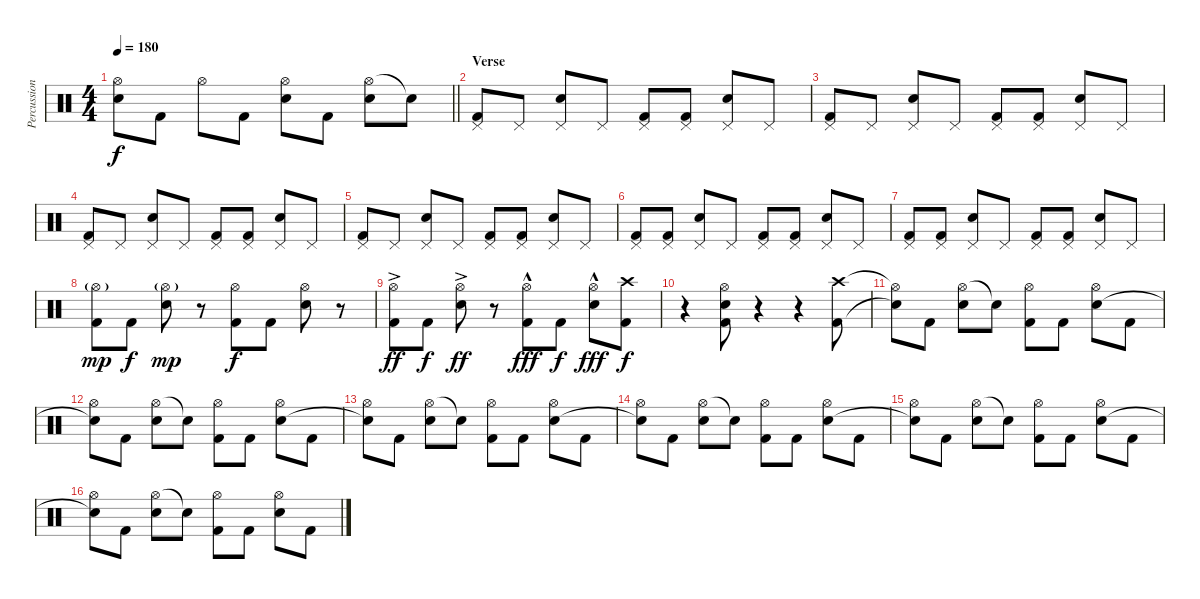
\track ("Percussion" "Percussion") {instrument percussion}
\staff {score}
\articulation defaults
\ts (4 4)
\tempo 180
\clef neutral
\barLineRight lightlight
\ks c
("Hi-Hat (open)" "Electric Snare (hit)").8{dy f} "Kick (hit) 2".8 "Hi-Hat (open)".8 "Kick (hit) 2".8 ("Hi-Hat (open)" "Electric Snare (hit)").8 "Kick (hit) 2".8 ("Hi-Hat (open)" "Electric Snare (hit)").8 "Snare (hit)"{t}.8 |
\section ("" "Verse")
("Pedal Hi-Hat (hit)" "Kick (hit) 2").8 "Pedal Hi-Hat (hit)".8 ("Pedal Hi-Hat (hit)" "Electric Snare (hit)").8 "Pedal Hi-Hat (hit)".8 ("Pedal Hi-Hat (hit)" "Kick (hit) 2").8 ("Pedal Hi-Hat (hit)" "Kick (hit) 2").8 ("Pedal Hi-Hat (hit)" "Electric Snare (hit)").8 "Pedal Hi-Hat (hit)".8 |
("Pedal Hi-Hat (hit)" "Kick (hit) 2").8 "Pedal Hi-Hat (hit)".8 ("Pedal Hi-Hat (hit)" "Electric Snare (hit)").8 "Pedal Hi-Hat (hit)".8 ("Pedal Hi-Hat (hit)" "Kick (hit) 2").8 ("Pedal Hi-Hat (hit)" "Kick (hit) 2").8 ("Pedal Hi-Hat (hit)" "Electric Snare (hit)").8 "Pedal Hi-Hat (hit)".8 |
("Pedal Hi-Hat (hit)" "Kick (hit) 2").8 "Pedal Hi-Hat (hit)".8 ("Pedal Hi-Hat (hit)" "Electric Snare (hit)").8 "Pedal Hi-Hat (hit)".8 ("Pedal Hi-Hat (hit)" "Kick (hit) 2").8 ("Pedal Hi-Hat (hit)" "Kick (hit) 2").8 ("Pedal Hi-Hat (hit)" "Electric Snare (hit)").8 "Pedal Hi-Hat (hit)".8 |
("Pedal Hi-Hat (hit)" "Kick (hit) 2").8 "Pedal Hi-Hat (hit)".8 ("Pedal Hi-Hat (hit)" "Electric Snare (hit)").8 "Pedal Hi-Hat (hit)".8 ("Pedal Hi-Hat (hit)" "Kick (hit) 2").8 ("Pedal Hi-Hat (hit)" "Kick (hit) 2").8 ("Pedal Hi-Hat (hit)" "Electric Snare (hit)").8 "Pedal Hi-Hat (hit)".8 |
("Pedal Hi-Hat (hit)" "Kick (hit) 2").8 ("Pedal Hi-Hat (hit)" "Kick (hit) 2").8 ("Pedal Hi-Hat (hit)" "Electric Snare (hit)").8 "Pedal Hi-Hat (hit)".8 ("Pedal Hi-Hat (hit)" "Kick (hit) 2").8 ("Pedal Hi-Hat (hit)" "Kick (hit) 2").8 ("Pedal Hi-Hat (hit)" "Electric Snare (hit)").8 "Pedal Hi-Hat (hit)".8 |
("Pedal Hi-Hat (hit)" "Kick (hit) 2").8 ("Pedal Hi-Hat (hit)" "Kick (hit) 2").8 ("Pedal Hi-Hat (hit)" "Electric Snare (hit)").8 "Pedal Hi-Hat (hit)".8 ("Pedal Hi-Hat (hit)" "Kick (hit) 2").8 ("Pedal Hi-Hat (hit)" "Kick (hit) 2").8 ("Pedal Hi-Hat (hit)" "Electric Snare (hit)").8 "Pedal Hi-Hat (hit)".8 |
("Hi-Hat (open)"{g} "Kick (hit) 2").8{dy mp} "Kick (hit) 2".8{dy f} ("Hi-Hat (open)"{g} "Electric Snare (hit)").8{dy mp} r.8 ("Hi-Hat (open)" "Kick (hit) 2").8{dy f} "Kick (hit) 2".8 ("Hi-Hat (open)" "Electric Snare (hit)").8 r.8 |
("Hi-Hat (open)"{ac} "Kick (hit) 2").8{dy ff} "Kick (hit) 2".8{dy f} ("Hi-Hat (open)"{ac} "Electric Snare (hit)").8{dy ff} r.8 ("Hi-Hat (open)"{hac} "Kick (hit) 2").8{dy fff} "Kick (hit) 2".8{dy f} ("Hi-Hat (open)"{hac} "Electric Snare (hit)").8{dy fff} ("Crash high (hit)" "Kick (hit) 2").8{dy f} |
r.4 ("Hi-Hat (open)" "Electric Snare (hit)" "Kick (hit) 2").8 r.4 r.4 ("Crash high (hit)" "Kick (hit) 2").8 |
("Hi-Hat (open)"{t} "Snare (hit)"{t}).8 "Kick (hit) 2".8 ("Hi-Hat (open)" "Electric Snare (hit)").8 "Snare (hit)"{t}.8 ("Hi-Hat (open)" "Kick (hit) 2").8 "Kick (hit) 2".8 ("Hi-Hat (open)" "Electric Snare (hit)").8 "Kick (hit) 2".8 |
("Hi-Hat (open)" "Snare (hit)"{t}).8 "Kick (hit) 2".8 ("Hi-Hat (open)" "Electric Snare (hit)").8 "Snare (hit)"{t}.8 ("Hi-Hat (open)" "Kick (hit) 2").8 "Kick (hit) 2".8 ("Hi-Hat (open)" "Electric Snare (hit)").8 "Kick (hit) 2".8 |
("Hi-Hat (open)" "Snare (hit)"{t}).8 "Kick (hit) 2".8 ("Hi-Hat (open)" "Electric Snare (hit)").8 "Snare (hit)"{t}.8 ("Hi-Hat (open)" "Kick (hit) 2").8 "Kick (hit) 2".8 ("Hi-Hat (open)" "Electric Snare (hit)").8 "Kick (hit) 2".8 |
("Hi-Hat (open)" "Snare (hit)"{t}).8 "Kick (hit) 2".8 ("Hi-Hat (open)" "Electric Snare (hit)").8 "Snare (hit)"{t}.8 ("Hi-Hat (open)" "Kick (hit) 2").8 "Kick (hit) 2".8 ("Hi-Hat (open)" "Electric Snare (hit)").8 "Kick (hit) 2".8 |
("Hi-Hat (open)" "Snare (hit)"{t}).8 "Kick (hit) 2".8 ("Hi-Hat (open)" "Electric Snare (hit)").8 "Snare (hit)"{t}.8 ("Hi-Hat (open)" "Kick (hit) 2").8 "Kick (hit) 2".8 ("Hi-Hat (open)" "Electric Snare (hit)").8 "Kick (hit) 2".8 |
("Hi-Hat (open)" "Snare (hit)"{t}).8 "Kick (hit) 2".8 ("Hi-Hat (open)" "Electric Snare (hit)").8 "Snare (hit)"{t}.8 ("Hi-Hat (open)" "Kick (hit) 2").8 "Kick (hit) 2".8 ("Hi-Hat (open)" "Electric Snare (hit)").8 "Kick (hit) 2".8
